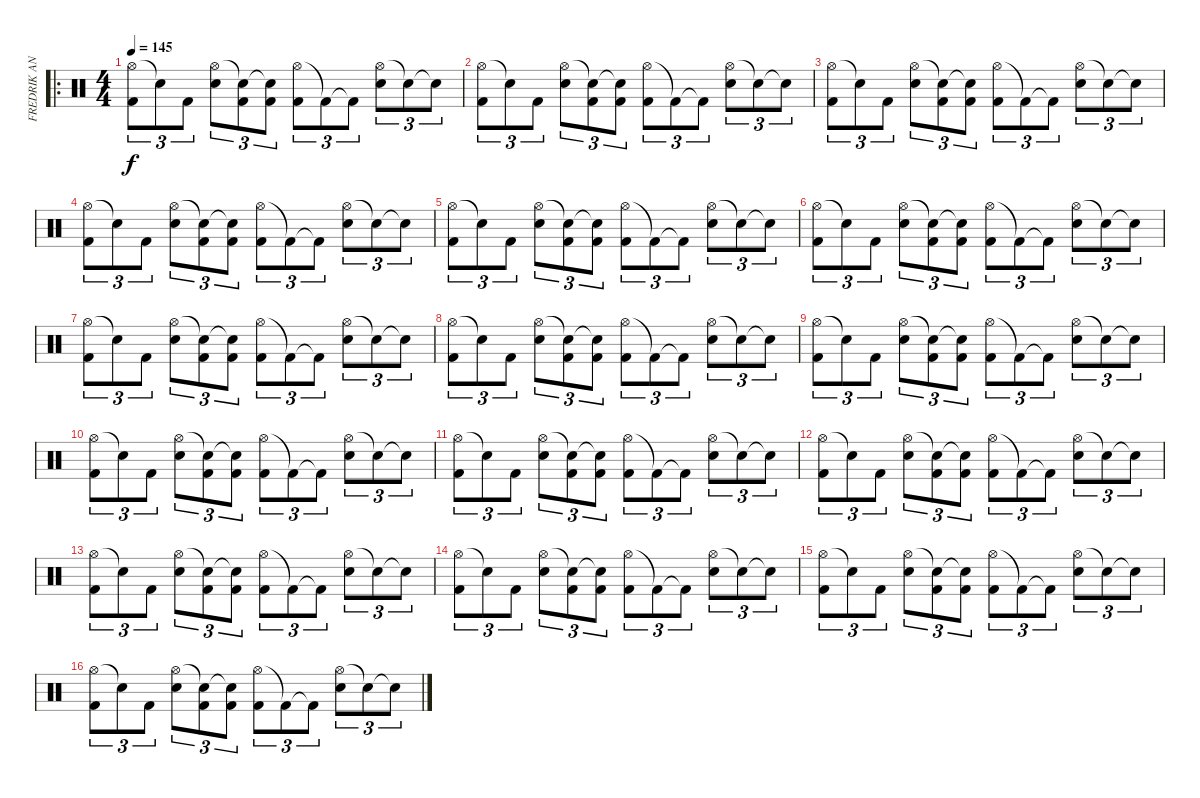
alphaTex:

\track ("FREDRIK ANDERSSON" "FREDRIK AN") {instrument percussion}
\staff {score}
\articulation defaults
\ro
\ts (4 4)
\tempo 145
\clef neutral
\ks c
("Hi-Hat (open)" "Kick (hit) 2").8{tu (3 2) dy f} "Snare (hit)"{t}.8{tu (3 2)} "Kick (hit) 2".8{tu (3 2)} ("Hi-Hat (open)" "Snare (hit) 2").8{tu (3 2)} ("Snare (hit)"{t} "Kick (hit) 2").8{tu (3 2)} ("Snare (hit)"{t} "Kick (hit) 2").8{tu (3 2)} ("Hi-Hat (open)" "Kick (hit) 2").8{tu (3 2)} "Kick (hit) 2"{t}.8{tu (3 2)} "Kick (hit) 2"{t}.8{tu (3 2)} ("Hi-Hat (open)" "Snare (hit) 2").8{tu (3 2)} "Snare (hit)"{t}.8{tu (3 2)} "Snare (hit)"{t}.8{tu (3 2)} |
("Hi-Hat (open)" "Kick (hit) 2").8{tu (3 2)} "Snare (hit)"{t}.8{tu (3 2)} "Kick (hit) 2".8{tu (3 2)} ("Hi-Hat (open)" "Snare (hit) 2").8{tu (3 2)} ("Snare (hit)"{t} "Kick (hit) 2").8{tu (3 2)} ("Snare (hit)"{t} "Kick (hit) 2").8{tu (3 2)} ("Hi-Hat (open)" "Kick (hit) 2").8{tu (3 2)} "Kick (hit) 2"{t}.8{tu (3 2)} "Kick (hit) 2"{t}.8{tu (3 2)} ("Hi-Hat (open)" "Snare (hit) 2").8{tu (3 2)} "Snare (hit)"{t}.8{tu (3 2)} "Snare (hit)"{t}.8{tu (3 2)} |
("Hi-Hat (open)" "Kick (hit) 2").8{tu (3 2)} "Snare (hit)"{t}.8{tu (3 2)} "Kick (hit) 2".8{tu (3 2)} ("Hi-Hat (open)" "Snare (hit) 2").8{tu (3 2)} ("Snare (hit)"{t} "Kick (hit) 2").8{tu (3 2)} ("Snare (hit)"{t} "Kick (hit) 2").8{tu (3 2)} ("Hi-Hat (open)" "Kick (hit) 2").8{tu (3 2)} "Kick (hit) 2"{t}.8{tu (3 2)} "Kick (hit) 2"{t}.8{tu (3 2)} ("Hi-Hat (open)" "Snare (hit) 2").8{tu (3 2)} "Snare (hit)"{t}.8{tu (3 2)} "Snare (hit)"{t}.8{tu (3 2)} |
("Hi-Hat (open)" "Kick (hit) 2").8{tu (3 2)} "Snare (hit)"{t}.8{tu (3 2)} "Kick (hit) 2".8{tu (3 2)} ("Hi-Hat (open)" "Snare (hit) 2").8{tu (3 2)} ("Snare (hit)"{t} "Kick (hit) 2").8{tu (3 2)} ("Snare (hit)"{t} "Kick (hit) 2").8{tu (3 2)} ("Hi-Hat (open)" "Kick (hit) 2").8{tu (3 2)} "Kick (hit) 2"{t}.8{tu (3 2)} "Kick (hit) 2"{t}.8{tu (3 2)} ("Hi-Hat (open)" "Snare (hit) 2").8{tu (3 2)} "Snare (hit)"{t}.8{tu (3 2)} "Snare (hit)"{t}.8{tu (3 2)} |
("Hi-Hat (open)" "Kick (hit) 2").8{tu (3 2)} "Snare (hit)"{t}.8{tu (3 2)} "Kick (hit) 2".8{tu (3 2)} ("Hi-Hat (open)" "Snare (hit) 2").8{tu (3 2)} ("Snare (hit)"{t} "Kick (hit) 2").8{tu (3 2)} ("Snare (hit)"{t} "Kick (hit) 2").8{tu (3 2)} ("Hi-Hat (open)" "Kick (hit) 2").8{tu (3 2)} "Kick (hit) 2"{t}.8{tu (3 2)} "Kick (hit) 2"{t}.8{tu (3 2)} ("Hi-Hat (open)" "Snare (hit) 2").8{tu (3 2)} "Snare (hit)"{t}.8{tu (3 2)} "Snare (hit)"{t}.8{tu (3 2)} |
("Hi-Hat (open)" "Kick (hit) 2").8{tu (3 2)} "Snare (hit)"{t}.8{tu (3 2)} "Kick (hit) 2".8{tu (3 2)} ("Hi-Hat (open)" "Snare (hit) 2").8{tu (3 2)} ("Snare (hit)"{t} "Kick (hit) 2").8{tu (3 2)} ("Snare (hit)"{t} "Kick (hit) 2").8{tu (3 2)} ("Hi-Hat (open)" "Kick (hit) 2").8{tu (3 2)} "Kick (hit) 2"{t}.8{tu (3 2)} "Kick (hit) 2"{t}.8{tu (3 2)} ("Hi-Hat (open)" "Snare (hit) 2").8{tu (3 2)} "Snare (hit)"{t}.8{tu (3 2)} "Snare (hit)"{t}.8{tu (3 2)} |
("Hi-Hat (open)" "Kick (hit) 2").8{tu (3 2)} "Snare (hit)"{t}.8{tu (3 2)} "Kick (hit) 2".8{tu (3 2)} ("Hi-Hat (open)" "Snare (hit) 2").8{tu (3 2)} ("Snare (hit)"{t} "Kick (hit) 2").8{tu (3 2)} ("Snare (hit)"{t} "Kick (hit) 2").8{tu (3 2)} ("Hi-Hat (open)" "Kick (hit) 2").8{tu (3 2)} "Kick (hit) 2"{t}.8{tu (3 2)} "Kick (hit) 2"{t}.8{tu (3 2)} ("Hi-Hat (open)" "Snare (hit) 2").8{tu (3 2)} "Snare (hit)"{t}.8{tu (3 2)} "Snare (hit)"{t}.8{tu (3 2)} |
("Hi-Hat (open)" "Kick (hit) 2").8{tu (3 2)} "Snare (hit)"{t}.8{tu (3 2)} "Kick (hit) 2".8{tu (3 2)} ("Hi-Hat (open)" "Snare (hit) 2").8{tu (3 2)} ("Snare (hit)"{t} "Kick (hit) 2").8{tu (3 2)} ("Snare (hit)"{t} "Kick (hit) 2").8{tu (3 2)} ("Hi-Hat (open)" "Kick (hit) 2").8{tu (3 2)} "Kick (hit) 2"{t}.8{tu (3 2)} "Kick (hit) 2"{t}.8{tu (3 2)} ("Hi-Hat (open)" "Snare (hit) 2").8{tu (3 2)} "Snare (hit)"{t}.8{tu (3 2)} "Snare (hit)"{t}.8{tu (3 2)} |
("Hi-Hat (open)" "Kick (hit) 2").8{tu (3 2)} "Snare (hit)"{t}.8{tu (3 2)} "Kick (hit) 2".8{tu (3 2)} ("Hi-Hat (open)" "Snare (hit) 2").8{tu (3 2)} ("Snare (hit)"{t} "Kick (hit) 2").8{tu (3 2)} ("Snare (hit)"{t} "Kick (hit) 2").8{tu (3 2)} ("Hi-Hat (open)" "Kick (hit) 2").8{tu (3 2)} "Kick (hit) 2"{t}.8{tu (3 2)} "Kick (hit) 2"{t}.8{tu (3 2)} ("Hi-Hat (open)" "Snare (hit) 2").8{tu (3 2)} "Snare (hit)"{t}.8{tu (3 2)} "Snare (hit)"{t}.8{tu (3 2)} |
("Hi-Hat (open)" "Kick (hit) 2").8{tu (3 2)} "Snare (hit)"{t}.8{tu (3 2)} "Kick (hit) 2".8{tu (3 2)} ("Hi-Hat (open)" "Snare (hit) 2").8{tu (3 2)} ("Snare (hit)"{t} "Kick (hit) 2").8{tu (3 2)} ("Snare (hit)"{t} "Kick (hit) 2").8{tu (3 2)} ("Hi-Hat (open)" "Kick (hit) 2").8{tu (3 2)} "Kick (hit) 2"{t}.8{tu (3 2)} "Kick (hit) 2"{t}.8{tu (3 2)} ("Hi-Hat (open)" "Snare (hit) 2").8{tu (3 2)} "Snare (hit)"{t}.8{tu (3 2)} "Snare (hit)"{t}.8{tu (3 2)} |
("Hi-Hat (open)" "Kick (hit) 2").8{tu (3 2)} "Snare (hit)"{t}.8{tu (3 2)} "Kick (hit) 2".8{tu (3 2)} ("Hi-Hat (open)" "Snare (hit) 2").8{tu (3 2)} ("Snare (hit)"{t} "Kick (hit) 2").8{tu (3 2)} ("Snare (hit)"{t} "Kick (hit) 2").8{tu (3 2)} ("Hi-Hat (open)" "Kick (hit) 2").8{tu (3 2)} "Kick (hit) 2"{t}.8{tu (3 2)} "Kick (hit) 2"{t}.8{tu (3 2)} ("Hi-Hat (open)" "Snare (hit) 2").8{tu (3 2)} "Snare (hit)"{t}.8{tu (3 2)} "Snare (hit)"{t}.8{tu (3 2)} |
("Hi-Hat (open)" "Kick (hit) 2").8{tu (3 2)} "Snare (hit)"{t}.8{tu (3 2)} "Kick (hit) 2".8{tu (3 2)} ("Hi-Hat (open)" "Snare (hit) 2").8{tu (3 2)} ("Snare (hit)"{t} "Kick (hit) 2").8{tu (3 2)} ("Snare (hit)"{t} "Kick (hit) 2").8{tu (3 2)} ("Hi-Hat (open)" "Kick (hit) 2").8{tu (3 2)} "Kick (hit) 2"{t}.8{tu (3 2)} "Kick (hit) 2"{t}.8{tu (3 2)} ("Hi-Hat (open)" "Snare (hit) 2").8{tu (3 2)} "Snare (hit)"{t}.8{tu (3 2)} "Snare (hit)"{t}.8{tu (3 2)} |
("Hi-Hat (open)" "Kick (hit) 2").8{tu (3 2)} "Snare (hit)"{t}.8{tu (3 2)} "Kick (hit) 2".8{tu (3 2)} ("Hi-Hat (open)" "Snare (hit) 2").8{tu (3 2)} ("Snare (hit)"{t} "Kick (hit) 2").8{tu (3 2)} ("Snare (hit)"{t} "Kick (hit) 2").8{tu (3 2)} ("Hi-Hat (open)" "Kick (hit) 2").8{tu (3 2)} "Kick (hit) 2"{t}.8{tu (3 2)} "Kick (hit) 2"{t}.8{tu (3 2)} ("Hi-Hat (open)" "Snare (hit) 2").8{tu (3 2)} "Snare (hit)"{t}.8{tu (3 2)} "Snare (hit)"{t}.8{tu (3 2)} |
("Hi-Hat (open)" "Kick (hit) 2").8{tu (3 2)} "Snare (hit)"{t}.8{tu (3 2)} "Kick (hit) 2".8{tu (3 2)} ("Hi-Hat (open)" "Snare (hit) 2").8{tu (3 2)} ("Snare (hit)"{t} "Kick (hit) 2").8{tu (3 2)} ("Snare (hit)"{t} "Kick (hit) 2").8{tu (3 2)} ("Hi-Hat (open)" "Kick (hit) 2").8{tu (3 2)} "Kick (hit) 2"{t}.8{tu (3 2)} "Kick (hit) 2"{t}.8{tu (3 2)} ("Hi-Hat (open)" "Snare (hit) 2").8{tu (3 2)} "Snare (hit)"{t}.8{tu (3 2)} "Snare (hit)"{t}.8{tu (3 2)} |
("Hi-Hat (open)" "Kick (hit) 2").8{tu (3 2)} "Snare (hit)"{t}.8{tu (3 2)} "Kick (hit) 2".8{tu (3 2)} ("Hi-Hat (open)" "Snare (hit) 2").8{tu (3 2)} ("Snare (hit)"{t} "Kick (hit) 2").8{tu (3 2)} ("Snare (hit)"{t} "Kick (hit) 2").8{tu (3 2)} ("Hi-Hat (open)" "Kick (hit) 2").8{tu (3 2)} "Kick (hit) 2"{t}.8{tu (3 2)} "Kick (hit) 2"{t}.8{tu (3 2)} ("Hi-Hat (open)" "Snare (hit) 2").8{tu (3 2)} "Snare (hit)"{t}.8{tu (3 2)} "Snare (hit)"{t}.8{tu (3 2)} |
("Hi-Hat (open)" "Kick (hit) 2").8{tu (3 2)} "Snare (hit)"{t}.8{tu (3 2)} "Kick (hit) 2".8{tu (3 2)} ("Hi-Hat (open)" "Snare (hit) 2").8{tu (3 2)} ("Snare (hit)"{t} "Kick (hit) 2").8{tu (3 2)} ("Snare (hit)"{t} "Kick (hit) 2").8{tu (3 2)} ("Hi-Hat (open)" "Kick (hit) 2").8{tu (3 2)} "Kick (hit) 2"{t}.8{tu (3 2)} "Kick (hit) 2"{t}.8{tu (3 2)} ("Hi-Hat (open)" "Snare (hit) 2").8{tu (3 2)} "Snare (hit)"{t}.8{tu (3 2)} "Snare (hit)"{t}.8{tu (3 2)}
